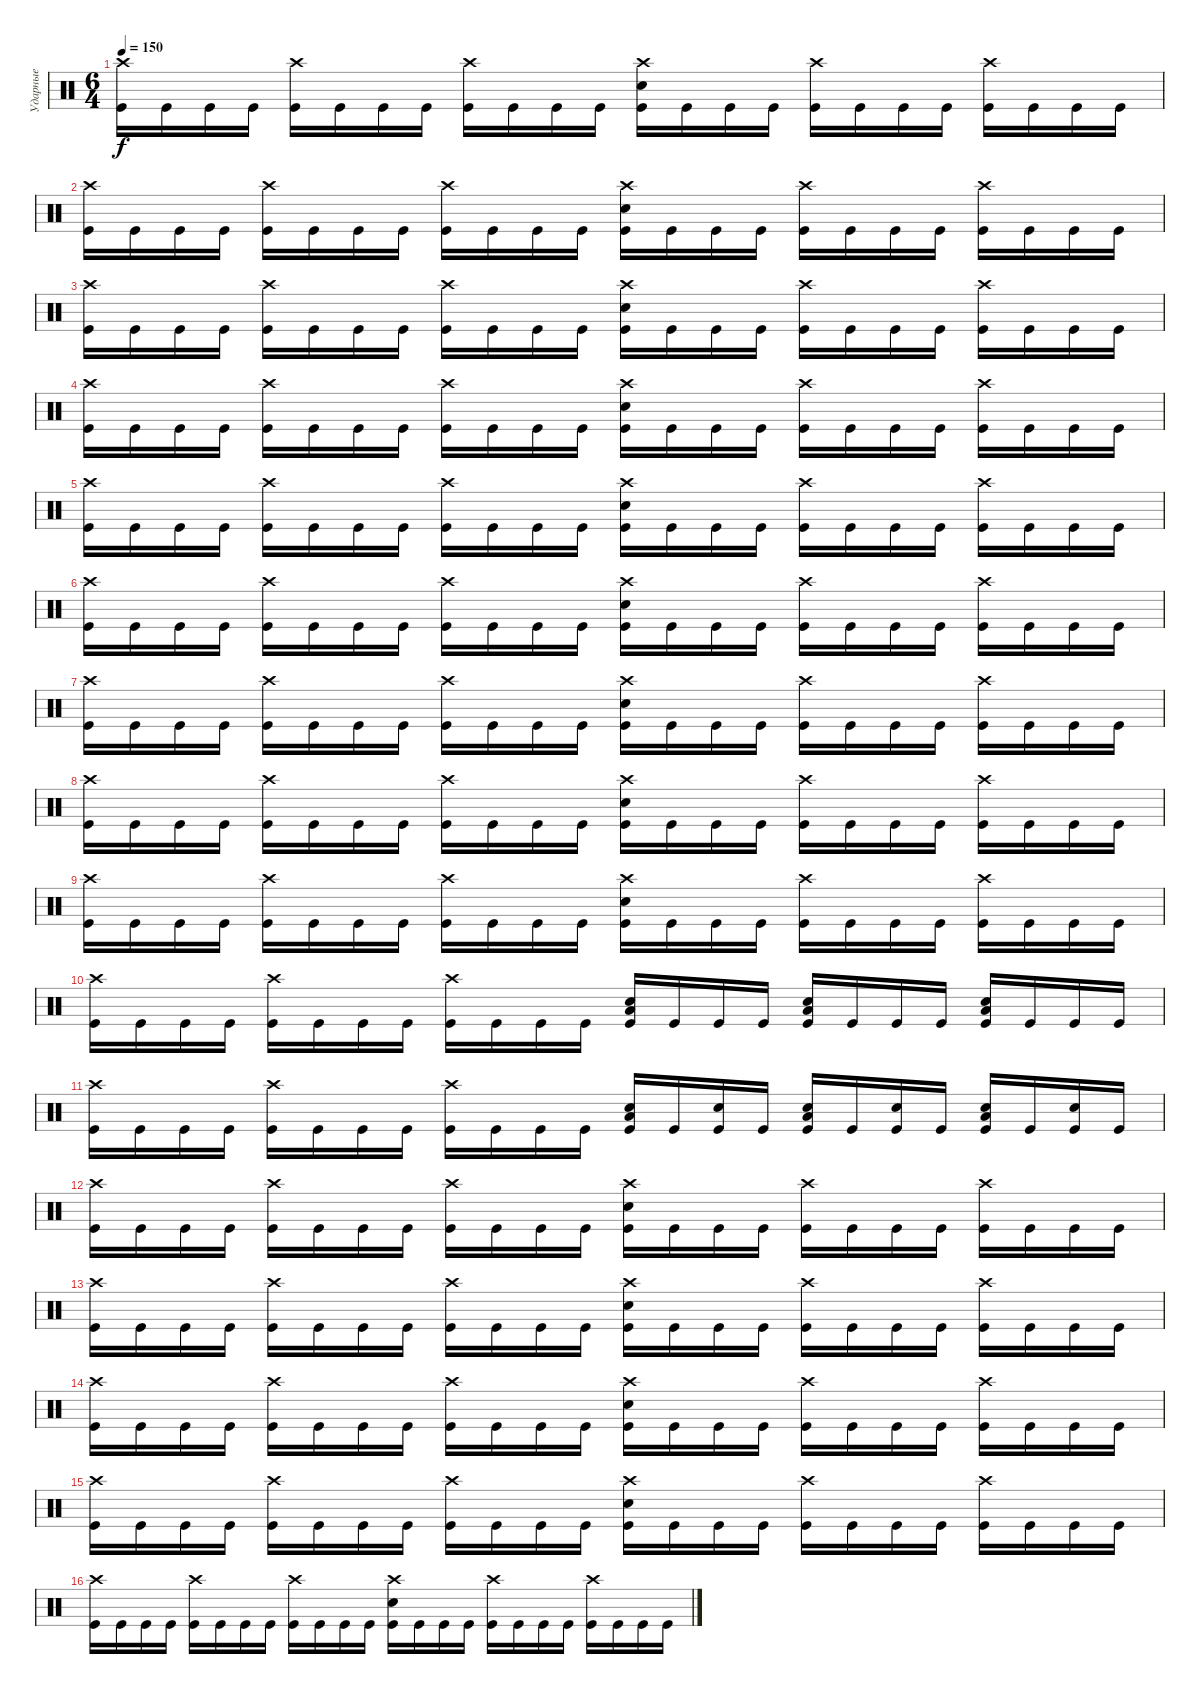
\track ("Ударные" "Ударные") {instrument percussion}
\staff {score}
\articulation defaults
\ts (6 4)
\tempo 150
\clef neutral
\ks c
("Crash high (hit)" "Kick (hit)").16{dy f} "Kick (hit)".16 "Kick (hit)".16 "Kick (hit)".16 ("Crash high (hit)" "Kick (hit)").16 "Kick (hit)".16 "Kick (hit)".16 "Kick (hit)".16 ("Crash high (hit)" "Kick (hit)").16 "Kick (hit)".16 "Kick (hit)".16 "Kick (hit)".16 ("Crash high (hit)" "Snare (hit) 2" "Kick (hit)").16 "Kick (hit)".16 "Kick (hit)".16 "Kick (hit)".16 ("Crash high (hit)" "Kick (hit)").16 "Kick (hit)".16 "Kick (hit)".16 "Kick (hit)".16 ("Crash high (hit)" "Kick (hit)").16 "Kick (hit)".16 "Kick (hit)".16 "Kick (hit)".16 |
("Crash high (hit)" "Kick (hit)").16 "Kick (hit)".16 "Kick (hit)".16 "Kick (hit)".16 ("Crash high (hit)" "Kick (hit)").16 "Kick (hit)".16 "Kick (hit)".16 "Kick (hit)".16 ("Crash high (hit)" "Kick (hit)").16 "Kick (hit)".16 "Kick (hit)".16 "Kick (hit)".16 ("Crash high (hit)" "Snare (hit) 2" "Kick (hit)").16 "Kick (hit)".16 "Kick (hit)".16 "Kick (hit)".16 ("Crash high (hit)" "Kick (hit)").16 "Kick (hit)".16 "Kick (hit)".16 "Kick (hit)".16 ("Crash high (hit)" "Kick (hit)").16 "Kick (hit)".16 "Kick (hit)".16 "Kick (hit)".16 |
("Crash high (hit)" "Kick (hit)").16 "Kick (hit)".16 "Kick (hit)".16 "Kick (hit)".16 ("Crash high (hit)" "Kick (hit)").16 "Kick (hit)".16 "Kick (hit)".16 "Kick (hit)".16 ("Crash high (hit)" "Kick (hit)").16 "Kick (hit)".16 "Kick (hit)".16 "Kick (hit)".16 ("Crash high (hit)" "Snare (hit) 2" "Kick (hit)").16 "Kick (hit)".16 "Kick (hit)".16 "Kick (hit)".16 ("Crash high (hit)" "Kick (hit)").16 "Kick (hit)".16 "Kick (hit)".16 "Kick (hit)".16 ("Crash high (hit)" "Kick (hit)").16 "Kick (hit)".16 "Kick (hit)".16 "Kick (hit)".16 |
("Crash high (hit)" "Kick (hit)").16 "Kick (hit)".16 "Kick (hit)".16 "Kick (hit)".16 ("Crash high (hit)" "Kick (hit)").16 "Kick (hit)".16 "Kick (hit)".16 "Kick (hit)".16 ("Crash high (hit)" "Kick (hit)").16 "Kick (hit)".16 "Kick (hit)".16 "Kick (hit)".16 ("Crash high (hit)" "Snare (hit) 2" "Kick (hit)").16 "Kick (hit)".16 "Kick (hit)".16 "Kick (hit)".16 ("Crash high (hit)" "Kick (hit)").16 "Kick (hit)".16 "Kick (hit)".16 "Kick (hit)".16 ("Crash high (hit)" "Kick (hit)").16 "Kick (hit)".16 "Kick (hit)".16 "Kick (hit)".16 |
("Crash high (hit)" "Kick (hit)").16 "Kick (hit)".16 "Kick (hit)".16 "Kick (hit)".16 ("Crash high (hit)" "Kick (hit)").16 "Kick (hit)".16 "Kick (hit)".16 "Kick (hit)".16 ("Crash high (hit)" "Kick (hit)").16 "Kick (hit)".16 "Kick (hit)".16 "Kick (hit)".16 ("Crash high (hit)" "Snare (hit) 2" "Kick (hit)").16 "Kick (hit)".16 "Kick (hit)".16 "Kick (hit)".16 ("Crash high (hit)" "Kick (hit)").16 "Kick (hit)".16 "Kick (hit)".16 "Kick (hit)".16 ("Crash high (hit)" "Kick (hit)").16 "Kick (hit)".16 "Kick (hit)".16 "Kick (hit)".16 |
("Crash high (hit)" "Kick (hit)").16 "Kick (hit)".16 "Kick (hit)".16 "Kick (hit)".16 ("Crash high (hit)" "Kick (hit)").16 "Kick (hit)".16 "Kick (hit)".16 "Kick (hit)".16 ("Crash high (hit)" "Kick (hit)").16 "Kick (hit)".16 "Kick (hit)".16 "Kick (hit)".16 ("Crash high (hit)" "Snare (hit) 2" "Kick (hit)").16 "Kick (hit)".16 "Kick (hit)".16 "Kick (hit)".16 ("Crash high (hit)" "Kick (hit)").16 "Kick (hit)".16 "Kick (hit)".16 "Kick (hit)".16 ("Crash high (hit)" "Kick (hit)").16 "Kick (hit)".16 "Kick (hit)".16 "Kick (hit)".16 |
("Crash high (hit)" "Kick (hit)").16 "Kick (hit)".16 "Kick (hit)".16 "Kick (hit)".16 ("Crash high (hit)" "Kick (hit)").16 "Kick (hit)".16 "Kick (hit)".16 "Kick (hit)".16 ("Crash high (hit)" "Kick (hit)").16 "Kick (hit)".16 "Kick (hit)".16 "Kick (hit)".16 ("Crash high (hit)" "Snare (hit) 2" "Kick (hit)").16 "Kick (hit)".16 "Kick (hit)".16 "Kick (hit)".16 ("Crash high (hit)" "Kick (hit)").16 "Kick (hit)".16 "Kick (hit)".16 "Kick (hit)".16 ("Crash high (hit)" "Kick (hit)").16 "Kick (hit)".16 "Kick (hit)".16 "Kick (hit)".16 |
("Crash high (hit)" "Kick (hit)").16 "Kick (hit)".16 "Kick (hit)".16 "Kick (hit)".16 ("Crash high (hit)" "Kick (hit)").16 "Kick (hit)".16 "Kick (hit)".16 "Kick (hit)".16 ("Crash high (hit)" "Kick (hit)").16 "Kick (hit)".16 "Kick (hit)".16 "Kick (hit)".16 ("Crash high (hit)" "Snare (hit) 2" "Kick (hit)").16 "Kick (hit)".16 "Kick (hit)".16 "Kick (hit)".16 ("Crash high (hit)" "Kick (hit)").16 "Kick (hit)".16 "Kick (hit)".16 "Kick (hit)".16 ("Crash high (hit)" "Kick (hit)").16 "Kick (hit)".16 "Kick (hit)".16 "Kick (hit)".16 |
("Crash high (hit)" "Kick (hit)").16 "Kick (hit)".16 "Kick (hit)".16 "Kick (hit)".16 ("Crash high (hit)" "Kick (hit)").16 "Kick (hit)".16 "Kick (hit)".16 "Kick (hit)".16 ("Crash high (hit)" "Kick (hit)").16 "Kick (hit)".16 "Kick (hit)".16 "Kick (hit)".16 ("Crash high (hit)" "Snare (hit) 2" "Kick (hit)").16 "Kick (hit)".16 "Kick (hit)".16 "Kick (hit)".16 ("Crash high (hit)" "Kick (hit)").16 "Kick (hit)".16 "Kick (hit)".16 "Kick (hit)".16 ("Crash high (hit)" "Kick (hit)").16 "Kick (hit)".16 "Kick (hit)".16 "Kick (hit)".16 |
("Crash high (hit)" "Kick (hit)").16 "Kick (hit)".16 "Kick (hit)".16 "Kick (hit)".16 ("Crash high (hit)" "Kick (hit)").16 "Kick (hit)".16 "Kick (hit)".16 "Kick (hit)".16 ("Crash high (hit)" "Kick (hit)").16 "Kick (hit)".16 "Kick (hit)".16 "Kick (hit)".16 ("Low Floor Tom (hit)" "Snare (hit) 2" "Kick (hit)").16 "Kick (hit)".16 "Kick (hit)".16 "Kick (hit)".16 ("Low Floor Tom (hit)" "Snare (hit) 2" "Kick (hit)").16 "Kick (hit)".16 "Kick (hit)".16 "Kick (hit)".16 ("Low Floor Tom (hit)" "Snare (hit) 2" "Kick (hit)").16 "Kick (hit)".16 "Kick (hit)".16 "Kick (hit)".16 |
("Crash high (hit)" "Kick (hit)").16 "Kick (hit)".16 "Kick (hit)".16 "Kick (hit)".16 ("Crash high (hit)" "Kick (hit)").16 "Kick (hit)".16 "Kick (hit)".16 "Kick (hit)".16 ("Crash high (hit)" "Kick (hit)").16 "Kick (hit)".16 "Kick (hit)".16 "Kick (hit)".16 ("Low Floor Tom (hit)" "Snare (hit) 2" "Kick (hit)").16 "Kick (hit)".16 ("Snare (hit) 2" "Kick (hit)").16 "Kick (hit)".16 ("Low Floor Tom (hit)" "Snare (hit) 2" "Kick (hit)").16 "Kick (hit)".16 ("Snare (hit) 2" "Kick (hit)").16 "Kick (hit)".16 ("Low Floor Tom (hit)" "Snare (hit) 2" "Kick (hit)").16 "Kick (hit)".16 ("Snare (hit) 2" "Kick (hit)").16 "Kick (hit)".16 |
("Crash high (hit)" "Kick (hit)").16{volume 7} "Kick (hit)".16 "Kick (hit)".16 "Kick (hit)".16 ("Crash high (hit)" "Kick (hit)").16 "Kick (hit)".16 "Kick (hit)".16 "Kick (hit)".16 ("Crash high (hit)" "Kick (hit)").16 "Kick (hit)".16 "Kick (hit)".16 "Kick (hit)".16 ("Crash high (hit)" "Snare (hit) 2" "Kick (hit)").16 "Kick (hit)".16 "Kick (hit)".16 "Kick (hit)".16 ("Crash high (hit)" "Kick (hit)").16 "Kick (hit)".16 "Kick (hit)".16 "Kick (hit)".16 ("Crash high (hit)" "Kick (hit)").16 "Kick (hit)".16 "Kick (hit)".16 "Kick (hit)".16 |
("Crash high (hit)" "Kick (hit)").16 "Kick (hit)".16 "Kick (hit)".16 "Kick (hit)".16 ("Crash high (hit)" "Kick (hit)").16 "Kick (hit)".16 "Kick (hit)".16 "Kick (hit)".16 ("Crash high (hit)" "Kick (hit)").16 "Kick (hit)".16 "Kick (hit)".16 "Kick (hit)".16 ("Crash high (hit)" "Snare (hit) 2" "Kick (hit)").16 "Kick (hit)".16 "Kick (hit)".16 "Kick (hit)".16 ("Crash high (hit)" "Kick (hit)").16 "Kick (hit)".16 "Kick (hit)".16 "Kick (hit)".16 ("Crash high (hit)" "Kick (hit)").16 "Kick (hit)".16 "Kick (hit)".16 "Kick (hit)".16 |
("Crash high (hit)" "Kick (hit)").16 "Kick (hit)".16 "Kick (hit)".16 "Kick (hit)".16 ("Crash high (hit)" "Kick (hit)").16 "Kick (hit)".16 "Kick (hit)".16 "Kick (hit)".16 ("Crash high (hit)" "Kick (hit)").16 "Kick (hit)".16 "Kick (hit)".16 "Kick (hit)".16 ("Crash high (hit)" "Snare (hit) 2" "Kick (hit)").16 "Kick (hit)".16 "Kick (hit)".16 "Kick (hit)".16 ("Crash high (hit)" "Kick (hit)").16 "Kick (hit)".16{volume 1} "Kick (hit)".16 "Kick (hit)".16 ("Crash high (hit)" "Kick (hit)").16 "Kick (hit)".16 "Kick (hit)".16 "Kick (hit)".16 |
("Crash high (hit)" "Kick (hit)").16 "Kick (hit)".16 "Kick (hit)".16 "Kick (hit)".16 ("Crash high (hit)" "Kick (hit)").16 "Kick (hit)".16 "Kick (hit)".16 "Kick (hit)".16 ("Crash high (hit)" "Kick (hit)").16 "Kick (hit)".16 "Kick (hit)".16 "Kick (hit)".16 ("Crash high (hit)" "Snare (hit) 2" "Kick (hit)").16 "Kick (hit)".16 "Kick (hit)".16 "Kick (hit)".16 ("Crash high (hit)" "Kick (hit)").16 "Kick (hit)".16 "Kick (hit)".16 "Kick (hit)".16 ("Crash high (hit)" "Kick (hit)").16 "Kick (hit)".16 "Kick (hit)".16 "Kick (hit)".16 |
("Crash high (hit)" "Kick (hit)").16 "Kick (hit)".16 "Kick (hit)".16 "Kick (hit)".16 ("Crash high (hit)" "Kick (hit)").16 "Kick (hit)".16 "Kick (hit)".16 "Kick (hit)".16 ("Crash high (hit)" "Kick (hit)").16 "Kick (hit)".16 "Kick (hit)".16 "Kick (hit)".16 ("Crash high (hit)" "Snare (hit) 2" "Kick (hit)").16 "Kick (hit)".16 "Kick (hit)".16 "Kick (hit)".16 ("Crash high (hit)" "Kick (hit)").16 "Kick (hit)".16 "Kick (hit)".16 "Kick (hit)".16 ("Crash high (hit)" "Kick (hit)").16 "Kick (hit)".16 "Kick (hit)".16 "Kick (hit)".16
